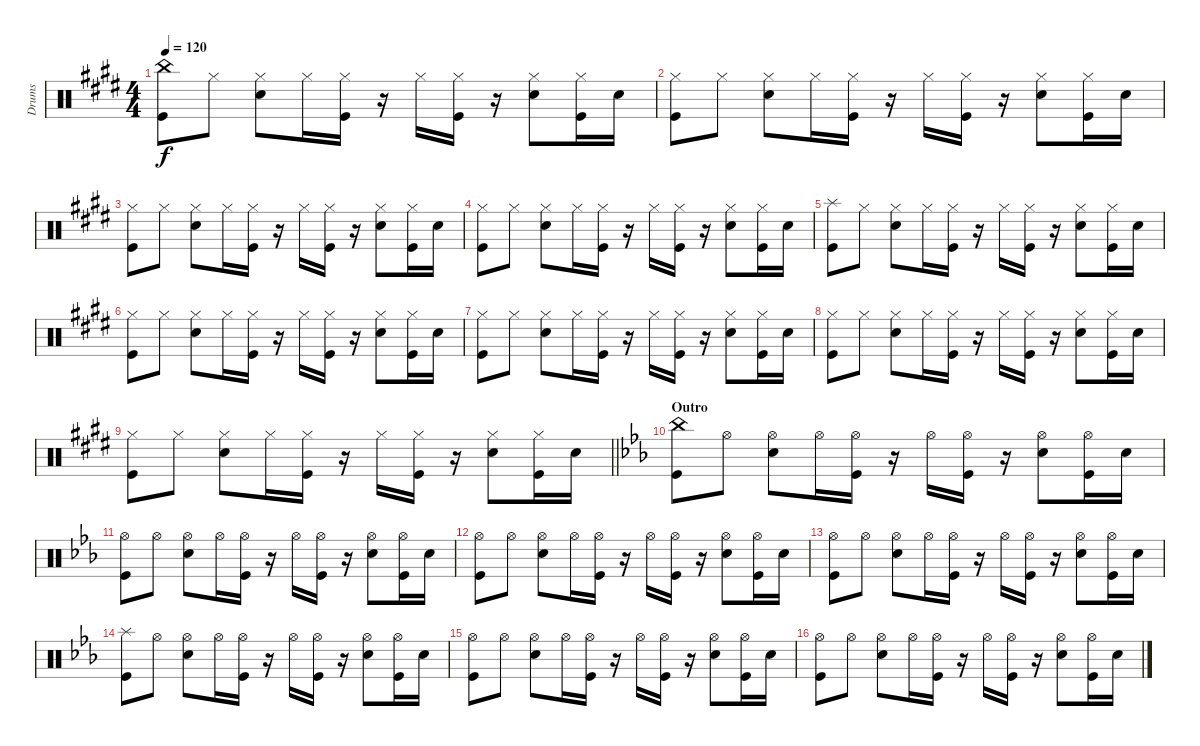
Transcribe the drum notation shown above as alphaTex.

\track ("Drums" "Drums") {instrument percussion}
\staff {score}
\articulation defaults
\ts (4 4)
\tempo 120
\clef neutral
\ks e
("China (hit)" "Kick (hit)").8{dy f} "Hi-Hat (closed)".8 ("Hi-Hat (closed)" "Snare (hit) 2").8 "Hi-Hat (closed)".16 ("Hi-Hat (closed)" "Kick (hit)").16 r.16 "Hi-Hat (closed)".16 ("Hi-Hat (closed)" "Kick (hit)").16 r.16 ("Hi-Hat (closed)" "Snare (hit) 2").8 ("Hi-Hat (closed)" "Kick (hit)").16 "Snare (hit) 2".16 |
\ks c#minor
("Hi-Hat (closed)" "Kick (hit)").8 "Hi-Hat (closed)".8 ("Hi-Hat (closed)" "Snare (hit) 2").8 "Hi-Hat (closed)".16 ("Hi-Hat (closed)" "Kick (hit)").16 r.16 "Hi-Hat (closed)".16 ("Hi-Hat (closed)" "Kick (hit)").16 r.16 ("Hi-Hat (closed)" "Snare (hit) 2").8 ("Hi-Hat (closed)" "Kick (hit)").16 "Snare (hit) 2".16 |
\ks e
("Hi-Hat (closed)" "Kick (hit)").8 "Hi-Hat (closed)".8 ("Hi-Hat (closed)" "Snare (hit) 2").8 "Hi-Hat (closed)".16 ("Hi-Hat (closed)" "Kick (hit)").16 r.16 "Hi-Hat (closed)".16 ("Hi-Hat (closed)" "Kick (hit)").16 r.16 ("Hi-Hat (closed)" "Snare (hit) 2").8 ("Hi-Hat (closed)" "Kick (hit)").16 "Snare (hit) 2".16 |
\ks c#minor
("Hi-Hat (closed)" "Kick (hit)").8 "Hi-Hat (closed)".8 ("Hi-Hat (closed)" "Snare (hit) 2").8 "Hi-Hat (closed)".16 ("Hi-Hat (closed)" "Kick (hit)").16 r.16 "Hi-Hat (closed)".16 ("Hi-Hat (closed)" "Kick (hit)").16 r.16 ("Hi-Hat (closed)" "Snare (hit) 2").8 ("Hi-Hat (closed)" "Kick (hit)").16 "Snare (hit) 2".16 |
\ks e
("Splash (hit)" "Kick (hit)").8 "Hi-Hat (closed)".8 ("Hi-Hat (closed)" "Snare (hit) 2").8 "Hi-Hat (closed)".16 ("Hi-Hat (closed)" "Kick (hit)").16 r.16 "Hi-Hat (closed)".16 ("Hi-Hat (closed)" "Kick (hit)").16 r.16 ("Hi-Hat (closed)" "Snare (hit) 2").8 ("Hi-Hat (closed)" "Kick (hit)").16 "Snare (hit) 2".16 |
\ks c#minor
("Hi-Hat (closed)" "Kick (hit)").8 "Hi-Hat (closed)".8 ("Hi-Hat (closed)" "Snare (hit) 2").8 "Hi-Hat (closed)".16 ("Hi-Hat (closed)" "Kick (hit)").16 r.16 "Hi-Hat (closed)".16 ("Hi-Hat (closed)" "Kick (hit)").16 r.16 ("Hi-Hat (closed)" "Snare (hit) 2").8 ("Hi-Hat (closed)" "Kick (hit)").16 "Snare (hit) 2".16 |
\ks e
("Hi-Hat (closed)" "Kick (hit)").8 "Hi-Hat (closed)".8 ("Hi-Hat (closed)" "Snare (hit) 2").8 "Hi-Hat (closed)".16 ("Hi-Hat (closed)" "Kick (hit)").16 r.16 "Hi-Hat (closed)".16 ("Hi-Hat (closed)" "Kick (hit)").16 r.16 ("Hi-Hat (closed)" "Snare (hit) 2").8 ("Hi-Hat (closed)" "Kick (hit)").16 "Snare (hit) 2".16 |
\ks c#minor
("Hi-Hat (closed)" "Kick (hit)").8 "Hi-Hat (closed)".8 ("Hi-Hat (closed)" "Snare (hit) 2").8 "Hi-Hat (closed)".16 ("Hi-Hat (closed)" "Kick (hit)").16 r.16 "Hi-Hat (closed)".16 ("Hi-Hat (closed)" "Kick (hit)").16 r.16 ("Hi-Hat (closed)" "Snare (hit) 2").8 ("Hi-Hat (closed)" "Kick (hit)").16 "Snare (hit) 2".16 |
\barLineRight lightlight
("Hi-Hat (closed)" "Kick (hit)").8 "Hi-Hat (closed)".8 ("Hi-Hat (closed)" "Snare (hit) 2").8 "Hi-Hat (closed)".16 ("Hi-Hat (closed)" "Kick (hit)").16 r.16 "Hi-Hat (closed)".16 ("Hi-Hat (closed)" "Kick (hit)").16 r.16 ("Hi-Hat (closed)" "Snare (hit) 2").8 ("Hi-Hat (closed)" "Kick (hit)").16 "Snare (hit) 2".16 |
\section ("" "Outro")
\ks eb
("China (hit)" "Kick (hit)").8 "Hi-Hat (open)".8 ("Hi-Hat (open)" "Snare (hit) 2").8 "Hi-Hat (open)".16 ("Hi-Hat (open)" "Kick (hit)").16 r.16 "Hi-Hat (open)".16 ("Hi-Hat (open)" "Kick (hit)").16 r.16 ("Hi-Hat (open)" "Snare (hit) 2").8 ("Hi-Hat (open)" "Kick (hit)").16 "Snare (hit) 2".16 |
("Hi-Hat (open)" "Kick (hit)").8 "Hi-Hat (open)".8 ("Hi-Hat (open)" "Snare (hit) 2").8 "Hi-Hat (open)".16 ("Hi-Hat (open)" "Kick (hit)").16 r.16 "Hi-Hat (open)".16 ("Hi-Hat (open)" "Kick (hit)").16 r.16 ("Hi-Hat (open)" "Snare (hit) 2").8 ("Hi-Hat (open)" "Kick (hit)").16 "Snare (hit) 2".16 |
("Hi-Hat (open)" "Kick (hit)").8 "Hi-Hat (open)".8 ("Hi-Hat (open)" "Snare (hit) 2").8 "Hi-Hat (open)".16 ("Hi-Hat (open)" "Kick (hit)").16 r.16 "Hi-Hat (open)".16 ("Hi-Hat (open)" "Kick (hit)").16 r.16 ("Hi-Hat (open)" "Snare (hit) 2").8 ("Hi-Hat (open)" "Kick (hit)").16 "Snare (hit) 2".16 |
("Hi-Hat (open)" "Kick (hit)").8 "Hi-Hat (open)".8 ("Hi-Hat (open)" "Snare (hit) 2").8 "Hi-Hat (open)".16 ("Hi-Hat (open)" "Kick (hit)").16 r.16 "Hi-Hat (open)".16 ("Hi-Hat (open)" "Kick (hit)").16 r.16 ("Hi-Hat (open)" "Snare (hit) 2").8 ("Hi-Hat (open)" "Kick (hit)").16 "Snare (hit) 2".16 |
("Splash (hit)" "Kick (hit)").8 "Hi-Hat (open)".8 ("Hi-Hat (open)" "Snare (hit) 2").8 "Hi-Hat (open)".16 ("Hi-Hat (open)" "Kick (hit)").16 r.16 "Hi-Hat (open)".16 ("Hi-Hat (open)" "Kick (hit)").16 r.16 ("Hi-Hat (open)" "Snare (hit) 2").8 ("Hi-Hat (open)" "Kick (hit)").16 "Snare (hit) 2".16 |
("Hi-Hat (open)" "Kick (hit)").8 "Hi-Hat (open)".8 ("Hi-Hat (open)" "Snare (hit) 2").8 "Hi-Hat (open)".16 ("Hi-Hat (open)" "Kick (hit)").16 r.16 "Hi-Hat (open)".16 ("Hi-Hat (open)" "Kick (hit)").16 r.16 ("Hi-Hat (open)" "Snare (hit) 2").8 ("Hi-Hat (open)" "Kick (hit)").16 "Snare (hit) 2".16 |
("Hi-Hat (open)" "Kick (hit)").8 "Hi-Hat (open)".8 ("Hi-Hat (open)" "Snare (hit) 2").8 "Hi-Hat (open)".16 ("Hi-Hat (open)" "Kick (hit)").16 r.16 "Hi-Hat (open)".16 ("Hi-Hat (open)" "Kick (hit)").16 r.16 ("Hi-Hat (open)" "Snare (hit) 2").8 ("Hi-Hat (open)" "Kick (hit)").16 "Snare (hit) 2".16
